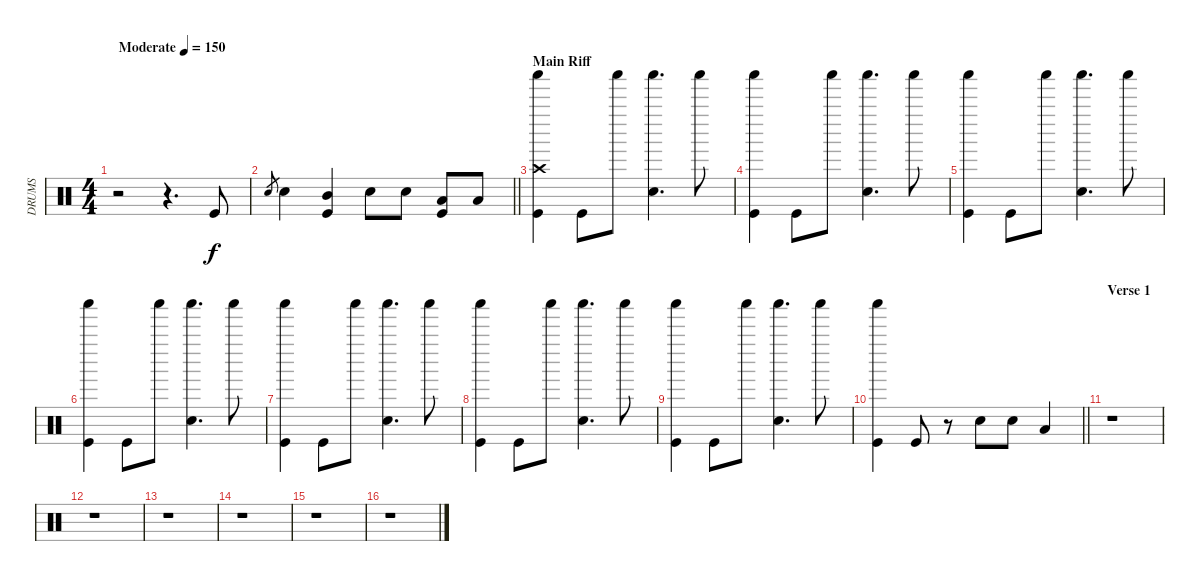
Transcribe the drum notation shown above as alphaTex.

\track ("DRUMS" "DRUMS") {instrument percussion}
\staff {score}
\articulation defaults
\ts (4 4)
\tempo (150 "Moderate")
\clef neutral
\ks c
r.2{dy f} r.4{d} "Kick (hit)".8 |
\barLineRight lightlight "Snare (hit) 2".8{gr} "Snare (hit) 2".4
("Mid Tom (hit)" "Kick (hit)").4 "Snare (hit) 2".8 "Snare (hit) 2".8 ("Low Tom (hit)" "Kick (hit)").8 "Low Floor Tom (hit)".8 |
\section ("" "Main Riff")
("Shaker (hit)" "Crash high (hit)" "Kick (hit)").4 "Kick (hit)".8 "Shaker (hit)".8 ("Shaker (hit)" "Snare (hit) 2").4{d} "Shaker (hit)".8 |
("Shaker (hit)" "Kick (hit)").4 "Kick (hit)".8 "Shaker (hit)".8 ("Shaker (hit)" "Snare (hit) 2").4{d} "Shaker (hit)".8 |
("Shaker (hit)" "Kick (hit)").4 "Kick (hit)".8 "Shaker (hit)".8 ("Shaker (hit)" "Snare (hit) 2").4{d} "Shaker (hit)".8 |
("Shaker (hit)" "Kick (hit)").4 "Kick (hit)".8 "Shaker (hit)".8 ("Shaker (hit)" "Snare (hit) 2").4{d} "Shaker (hit)".8 |
("Shaker (hit)" "Kick (hit)").4 "Kick (hit)".8 "Shaker (hit)".8 ("Shaker (hit)" "Snare (hit) 2").4{d} "Shaker (hit)".8 |
("Shaker (hit)" "Kick (hit)").4 "Kick (hit)".8 "Shaker (hit)".8 ("Shaker (hit)" "Snare (hit) 2").4{d} "Shaker (hit)".8 |
("Shaker (hit)" "Kick (hit)").4 "Kick (hit)".8 "Shaker (hit)".8 ("Shaker (hit)" "Snare (hit) 2").4{d} "Shaker (hit)".8 |
\barLineRight lightlight
("Shaker (hit)" "Kick (hit)").4 "Kick (hit)".8 r.8 "Snare (hit) 2".8 "Snare (hit) 2".8 "Low Tom (hit)".4 |
\section ("" "Verse 1")
r.1 |
r.1 |
r.1 |
r.1 |
r.1 |
r.1
